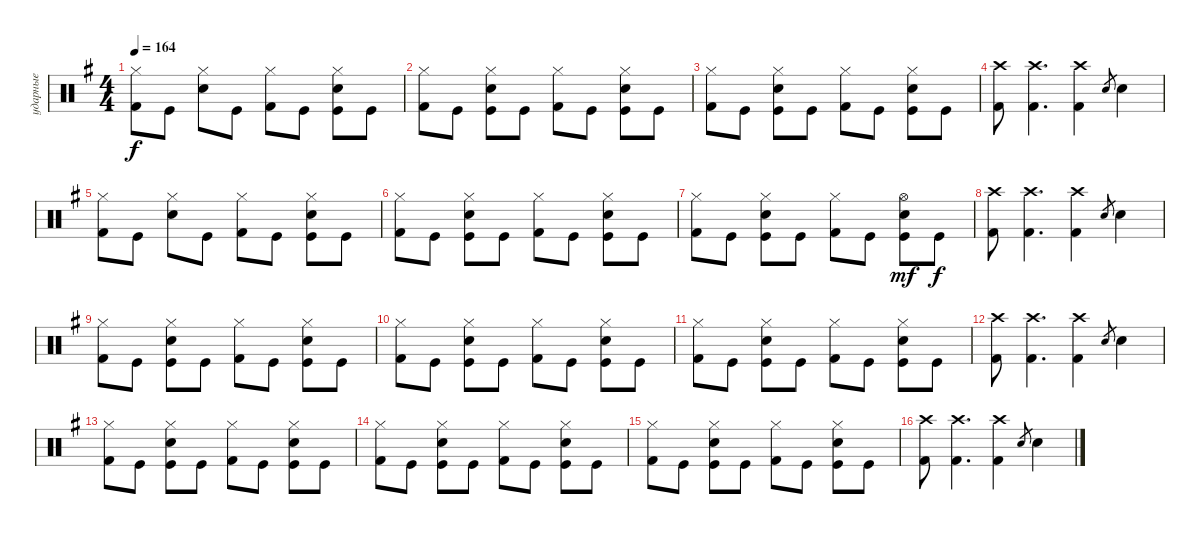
\track ("ударные" "ударные") {instrument percussion}
\staff {score}
\articulation defaults
\ts (4 4)
\tempo 164
\clef neutral
\ks eminor
("Hi-Hat (closed)" "Kick (hit) 2").8{dy f} "Kick (hit)".8 ("Snare (hit) 2" "Hi-Hat (closed)").8 "Kick (hit)".8 ("Hi-Hat (closed)" "Kick (hit) 2").8 "Kick (hit)".8 ("Hi-Hat (closed)" "Kick (hit)" "Snare (hit) 2").8 "Kick (hit)".8 |
("Hi-Hat (closed)" "Kick (hit) 2").8 "Kick (hit)".8 ("Snare (hit) 2" "Hi-Hat (closed)" "Kick (hit)").8 "Kick (hit)".8 ("Hi-Hat (closed)" "Kick (hit) 2").8 "Kick (hit)".8 ("Hi-Hat (closed)" "Kick (hit)" "Snare (hit) 2").8 "Kick (hit)".8 |
("Hi-Hat (closed)" "Kick (hit) 2").8 "Kick (hit)".8 ("Snare (hit) 2" "Hi-Hat (closed)" "Kick (hit)").8 "Kick (hit)".8 ("Hi-Hat (closed)" "Kick (hit) 2").8 "Kick (hit)".8 ("Hi-Hat (closed)" "Kick (hit)" "Snare (hit) 2").8 "Kick (hit)".8 |
("Crash high (hit)" "Kick (hit) 2").8 ("Crash high (hit)" "Kick (hit) 2").4{d} ("Crash high (hit)" "Kick (hit) 2").4 "Snare (hit) 2".8{gr} "Snare (hit) 2".4 |
("Hi-Hat (closed)" "Kick (hit) 2").8 "Kick (hit)".8 ("Snare (hit) 2" "Hi-Hat (closed)").8 "Kick (hit)".8 ("Hi-Hat (closed)" "Kick (hit) 2").8 "Kick (hit)".8 ("Hi-Hat (closed)" "Kick (hit)" "Snare (hit) 2").8 "Kick (hit)".8 |
("Hi-Hat (closed)" "Kick (hit) 2").8 "Kick (hit)".8 ("Snare (hit) 2" "Hi-Hat (closed)" "Kick (hit)").8 "Kick (hit)".8 ("Hi-Hat (closed)" "Kick (hit) 2").8 "Kick (hit)".8 ("Hi-Hat (closed)" "Kick (hit)" "Snare (hit) 2").8 "Kick (hit)".8 |
("Hi-Hat (closed)" "Kick (hit) 2").8 "Kick (hit)".8 ("Snare (hit) 2" "Hi-Hat (closed)" "Kick (hit)").8 "Kick (hit)".8 ("Hi-Hat (closed)" "Kick (hit) 2").8 "Kick (hit)".8 ("Snare (hit) 2" "Kick (hit)" "Hi-Hat (open)").8{dy mf} "Kick (hit)".8{dy f} |
("Crash high (hit)" "Kick (hit) 2").8 ("Crash high (hit)" "Kick (hit) 2").4{d} ("Crash high (hit)" "Kick (hit) 2").4 "Snare (hit) 2".8{gr} "Snare (hit) 2".4 |
("Hi-Hat (closed)" "Kick (hit) 2").8 "Kick (hit)".8 ("Snare (hit) 2" "Hi-Hat (closed)" "Kick (hit)").8 "Kick (hit)".8 ("Hi-Hat (closed)" "Kick (hit) 2").8 "Kick (hit)".8 ("Hi-Hat (closed)" "Kick (hit)" "Snare (hit) 2").8 "Kick (hit)".8 |
("Hi-Hat (closed)" "Kick (hit) 2").8 "Kick (hit)".8 ("Snare (hit) 2" "Hi-Hat (closed)" "Kick (hit)").8 "Kick (hit)".8 ("Hi-Hat (closed)" "Kick (hit) 2").8 "Kick (hit)".8 ("Hi-Hat (closed)" "Kick (hit)" "Snare (hit) 2").8 "Kick (hit)".8 |
("Hi-Hat (closed)" "Kick (hit) 2").8 "Kick (hit)".8 ("Snare (hit) 2" "Hi-Hat (closed)" "Kick (hit)").8 "Kick (hit)".8 ("Hi-Hat (closed)" "Kick (hit) 2").8 "Kick (hit)".8 ("Hi-Hat (closed)" "Kick (hit)" "Snare (hit) 2").8 "Kick (hit)".8 |
("Crash high (hit)" "Kick (hit) 2").8 ("Crash high (hit)" "Kick (hit) 2").4{d} ("Crash high (hit)" "Kick (hit) 2").4 "Snare (hit) 2".8{gr} "Snare (hit) 2".4 |
("Hi-Hat (closed)" "Kick (hit) 2").8 "Kick (hit)".8 ("Snare (hit) 2" "Hi-Hat (closed)" "Kick (hit)").8 "Kick (hit)".8 ("Hi-Hat (closed)" "Kick (hit) 2").8 "Kick (hit)".8 ("Hi-Hat (closed)" "Kick (hit)" "Snare (hit) 2").8 "Kick (hit)".8 |
("Hi-Hat (closed)" "Kick (hit) 2").8 "Kick (hit)".8 ("Snare (hit) 2" "Hi-Hat (closed)" "Kick (hit)").8 "Kick (hit)".8 ("Hi-Hat (closed)" "Kick (hit) 2").8 "Kick (hit)".8 ("Hi-Hat (closed)" "Kick (hit)" "Snare (hit) 2").8 "Kick (hit)".8 |
("Hi-Hat (closed)" "Kick (hit) 2").8 "Kick (hit)".8 ("Snare (hit) 2" "Hi-Hat (closed)" "Kick (hit)").8 "Kick (hit)".8 ("Hi-Hat (closed)" "Kick (hit) 2").8 "Kick (hit)".8 ("Hi-Hat (closed)" "Kick (hit)" "Snare (hit) 2").8 "Kick (hit)".8 |
("Crash high (hit)" "Kick (hit) 2").8 ("Crash high (hit)" "Kick (hit) 2").4{d} ("Crash high (hit)" "Kick (hit) 2").4 "Snare (hit) 2".8{gr} "Snare (hit) 2".4
